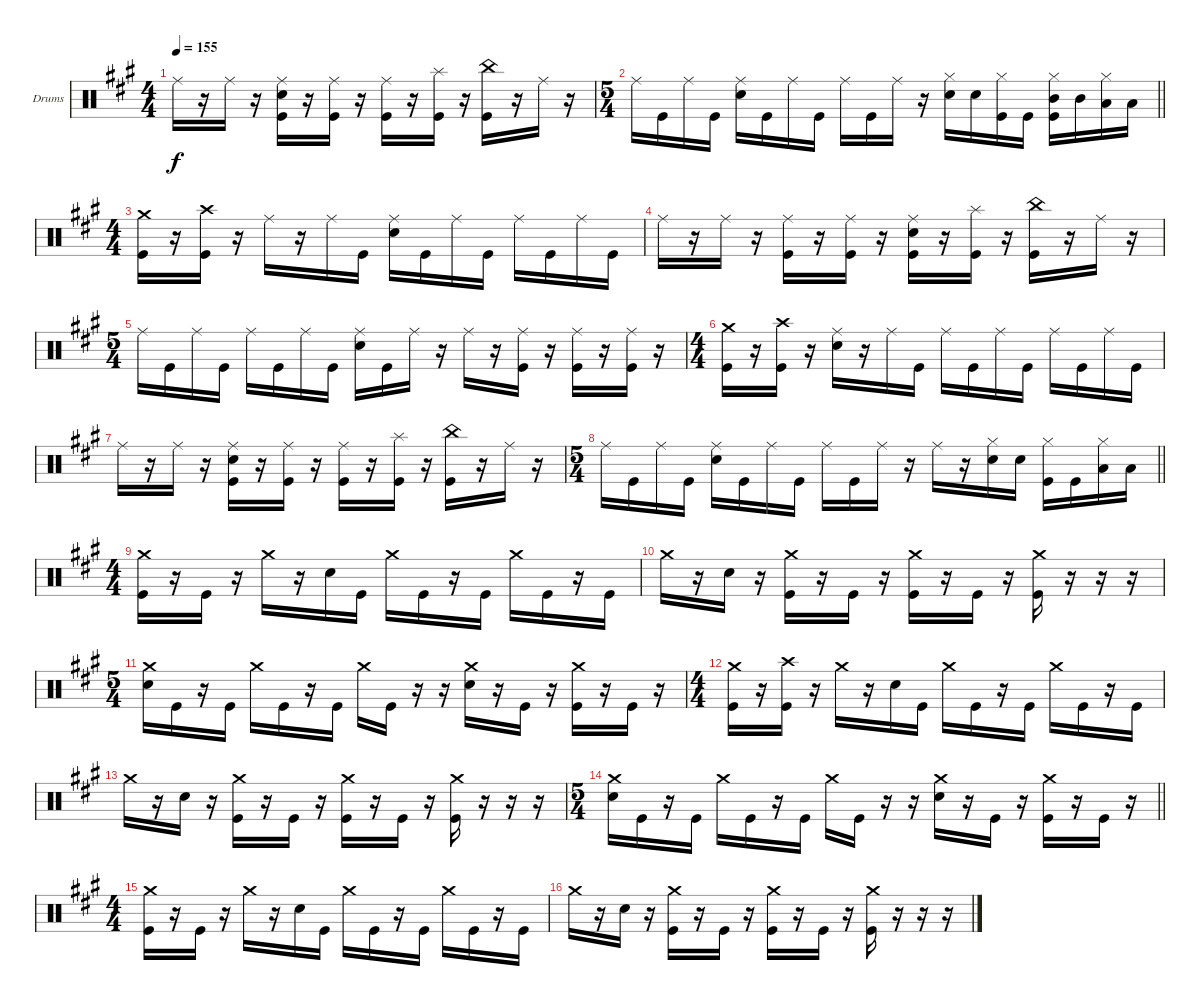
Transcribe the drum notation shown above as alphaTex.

\bracketExtendMode groupsimilarinstruments
\firstSystemTrackNameOrientation horizontal
\otherSystemsTrackNameOrientation horizontal
\track ("Drumkit" "Drums") {instrument percussion}
\staff {score}
\articulation defaults
\ts (4 4)
\tempo 155
\clef neutral
\ks a "Ride (middle)".16{dy f}
r.16 "Ride (middle)".16 r.16 ("Ride (middle)" "Snare (hit) 2" "Kick (hit)").16 r.16 ("Ride (middle)" "Kick (hit)").16 r.16 ("Ride (middle)" "Kick (hit)").16 r.16 ("Splash (hit)" "Kick (hit)").16 r.16 ("China (hit)" "Kick (hit)").16 r.16 "Ride (middle)".16 r.16 |
\ts (5 4)
\beaming (8 2 2 2 2 2)
\barLineRight lightlight "Ride (middle)".16 "Kick (hit)".16 "Ride (middle)".16 "Kick (hit)".16
("Ride (middle)" "Snare (hit) 2").16 "Kick (hit)".16 "Ride (middle)".16 "Kick (hit)".16 "Ride (middle)".16 "Kick (hit)".16 "Ride (middle)".16 r.16 ("Hi-Hat (closed)" "Snare (hit) 2").16 "Snare (hit) 2".16 ("Hi-Hat (closed)" "Kick (hit)").16 "Kick (hit)".16 ("Hi-Hat (closed)" "Mid Tom (hit)" "Kick (hit)").16 "Mid Tom (hit)".16 ("Hi-Hat (closed)" "Low Tom (hit)").16 "Low Tom (hit)".16 |
\ts (4 4)
\beaming (8 2 2 2 2 2)
("Crash medium (hit)" "Kick (hit)").16 r.16 ("Crash high (hit)" "Kick (hit)").16 r.16 "Ride (middle)".16 r.16 "Ride (middle)".16 "Kick (hit)".16 ("Ride (middle)" "Snare (hit) 2").16 "Kick (hit)".16 "Ride (middle)".16 "Kick (hit)".16 "Ride (middle)".16 "Kick (hit)".16 "Ride (middle)".16 "Kick (hit)".16 |
"Ride (middle)".16 r.16 "Ride (middle)".16 r.16 ("Ride (middle)" "Kick (hit)").16 r.16 ("Ride (middle)" "Kick (hit)").16 r.16 ("Ride (middle)" "Snare (hit) 2" "Kick (hit)").16 r.16 ("Splash (hit)" "Kick (hit)").16 r.16 ("China (hit)" "Kick (hit)").16 r.16 "Ride (middle)".16 r.16 |
\ts (5 4)
\beaming (8 2 2 2 2 2)
"Ride (middle)".16 "Kick (hit)".16 "Ride (middle)".16 "Kick (hit)".16 "Ride (middle)".16 "Kick (hit)".16 "Ride (middle)".16 "Kick (hit)".16 ("Ride (middle)" "Snare (hit) 2").16 "Kick (hit)".16 "Ride (middle)".16 r.16 "Ride (middle)".16 r.16 ("Ride (middle)" "Kick (hit)").16 r.16 ("Ride (middle)" "Kick (hit)").16 r.16 ("Ride (middle)" "Kick (hit)").16 r.16 |
\ts (4 4)
\beaming (8 2 2 2 2 2)
("Crash medium (hit)" "Kick (hit)").16 r.16 ("Crash high (hit)" "Kick (hit)").16 r.16 ("Ride (middle)" "Snare (hit) 2").16 r.16 "Ride (middle)".16 "Kick (hit)".16 "Ride (middle)".16 "Kick (hit)".16 "Ride (middle)".16 "Kick (hit)".16 "Ride (middle)".16 "Kick (hit)".16 "Ride (middle)".16 "Kick (hit)".16 |
"Ride (middle)".16 r.16 "Ride (middle)".16 r.16 ("Ride (middle)" "Snare (hit) 2" "Kick (hit)").16 r.16 ("Ride (middle)" "Kick (hit)").16 r.16 ("Ride (middle)" "Kick (hit)").16 r.16 ("Splash (hit)" "Kick (hit)").16 r.16 ("China (hit)" "Kick (hit)").16 r.16 "Ride (middle)".16 r.16 |
\ts (5 4)
\beaming (8 2 2 2 2 2)
\barLineRight lightlight "Ride (middle)".16 "Kick (hit)".16 "Ride (middle)".16 "Kick (hit)".16
("Ride (middle)" "Snare (hit) 2").16 "Kick (hit)".16 "Ride (middle)".16 "Kick (hit)".16 "Ride (middle)".16 "Kick (hit)".16 "Ride (middle)".16 r.16 "Ride (middle)".16 r.16 ("Hi-Hat (closed)" "Snare (hit) 2").16 "Snare (hit) 2".16 ("Hi-Hat (closed)" "Kick (hit)").16 "Kick (hit)".16 ("Hi-Hat (closed)" "Low Tom (hit)").16 "Low Tom (hit)".16 |
\ts (4 4)
\beaming (8 2 2 2 2 2)
("Crash medium (hit)" "Kick (hit)").16 r.16 "Kick (hit)".16 r.16 "Crash medium (hit)".16 r.16 "Snare (hit) 2".16 "Kick (hit)".16 "Crash medium (hit)".16 "Kick (hit)".16 r.16 "Kick (hit)".16 "Crash medium (hit)".16 "Kick (hit)".16 r.16 "Kick (hit)".16 |
"Crash medium (hit)".16 r.16 "Snare (hit) 2".16 r.16 ("Crash medium (hit)" "Kick (hit)").16 r.16 "Kick (hit)".16 r.16 ("Crash medium (hit)" "Kick (hit)").16 r.16 "Kick (hit)".16 r.16 ("Crash medium (hit)" "Kick (hit)").16 r.16 r.16 r.16 |
\ts (5 4)
\beaming (8 2 2 2 2 2)
("Crash medium (hit)" "Snare (hit) 2").16 "Kick (hit)".16 r.16 "Kick (hit)".16 "Crash medium (hit)".16 "Kick (hit)".16 r.16 "Kick (hit)".16 "Crash medium (hit)".16 "Kick (hit)".16 r.16 r.16 ("Crash medium (hit)" "Snare (hit) 2").16 r.16 "Kick (hit)".16 r.16 ("Crash medium (hit)" "Kick (hit)").16 r.16 "Kick (hit)".16 r.16 |
\ts (4 4)
\beaming (8 2 2 2 2 2)
("Crash medium (hit)" "Kick (hit)").16 r.16 ("Crash high (hit)" "Kick (hit)").16 r.16 "Crash medium (hit)".16 r.16 "Snare (hit) 2".16 "Kick (hit)".16 "Crash medium (hit)".16 "Kick (hit)".16 r.16 "Kick (hit)".16 "Crash medium (hit)".16 "Kick (hit)".16 r.16 "Kick (hit)".16 |
"Crash medium (hit)".16 r.16 "Snare (hit) 2".16 r.16 ("Crash medium (hit)" "Kick (hit)").16 r.16 "Kick (hit)".16 r.16 ("Crash medium (hit)" "Kick (hit)").16 r.16 "Kick (hit)".16 r.16 ("Crash medium (hit)" "Kick (hit)").16 r.16 r.16 r.16 |
\ts (5 4)
\beaming (8 2 2 2 2 2)
\barLineRight lightlight
("Crash medium (hit)" "Snare (hit) 2").16 "Kick (hit)".16 r.16 "Kick (hit)".16 "Crash medium (hit)".16 "Kick (hit)".16 r.16 "Kick (hit)".16 "Crash medium (hit)".16 "Kick (hit)".16 r.16 r.16 ("Crash medium (hit)" "Snare (hit) 2").16 r.16 "Kick (hit)".16 r.16 ("Crash medium (hit)" "Kick (hit)").16 r.16 "Kick (hit)".16 r.16 |
\ts (4 4)
\beaming (8 2 2 2 2 2)
("Crash medium (hit)" "Kick (hit)").16 r.16 "Kick (hit)".16 r.16 "Crash medium (hit)".16 r.16 "Snare (hit) 2".16 "Kick (hit)".16 "Crash medium (hit)".16 "Kick (hit)".16 r.16 "Kick (hit)".16 "Crash medium (hit)".16 "Kick (hit)".16 r.16 "Kick (hit)".16 |
"Crash medium (hit)".16 r.16 "Snare (hit) 2".16 r.16 ("Crash medium (hit)" "Kick (hit)").16 r.16 "Kick (hit)".16 r.16 ("Crash medium (hit)" "Kick (hit)").16 r.16 "Kick (hit)".16 r.16 ("Crash medium (hit)" "Kick (hit)").16 r.16 r.16 r.16
